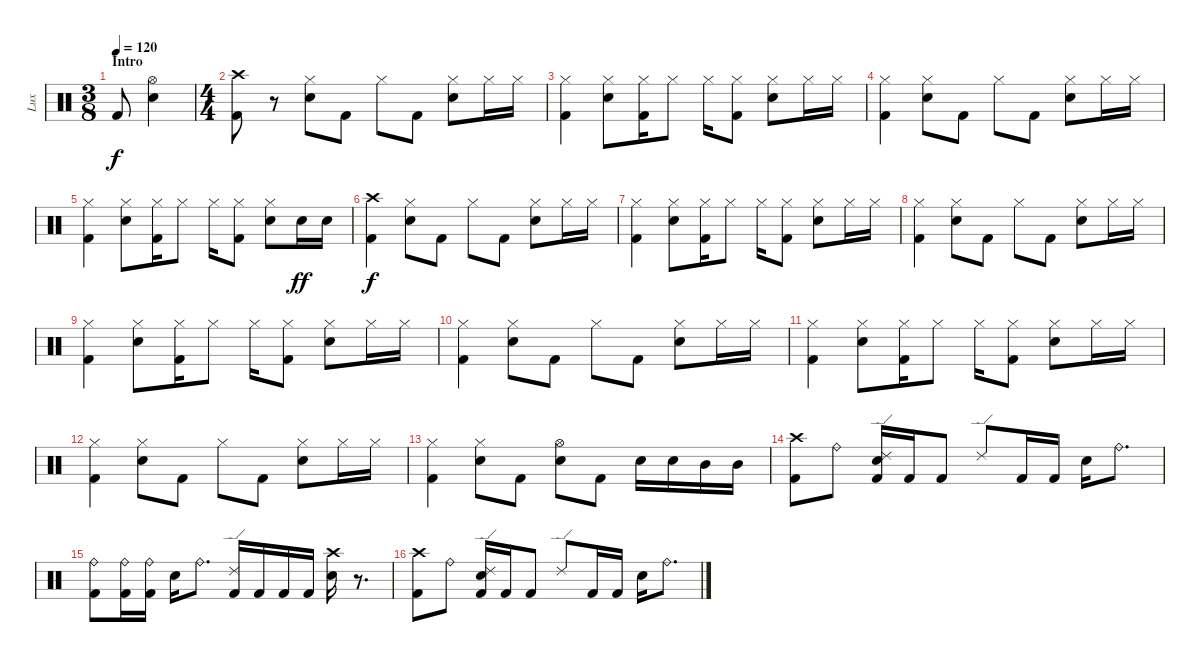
\track ("Lux" "Lux") {instrument percussion bank 32}
\staff {score}
\articulation defaults
\ts (3 8)
\section ("" "Intro")
\tempo 120
\clef neutral
\ks c "Kick (hit) 2".8{dy f}
("Hi-Hat (open)" "Snare (hit) 2").4 |
\ts (4 4)
("Crash high (hit)" "Kick (hit) 2").8 r.8 ("Hi-Hat (closed)" "Snare (hit) 2").8 "Kick (hit) 2".8 "Hi-Hat (closed)".8 "Kick (hit) 2".8 ("Hi-Hat (closed)" "Snare (hit) 2").8 "Hi-Hat (closed)".16 "Hi-Hat (closed)".16 |
("Hi-Hat (closed)" "Kick (hit) 2").4 ("Hi-Hat (closed)" "Snare (hit) 2").8 ("Hi-Hat (closed)" "Kick (hit) 2").16 "Hi-Hat (closed)".8 "Hi-Hat (closed)".16 ("Hi-Hat (closed)" "Kick (hit) 2").8 ("Hi-Hat (closed)" "Snare (hit) 2").8 "Hi-Hat (closed)".16 "Hi-Hat (closed)".16 |
("Hi-Hat (closed)" "Kick (hit) 2").4 ("Hi-Hat (closed)" "Snare (hit) 2").8 "Kick (hit) 2".8 "Hi-Hat (closed)".8 "Kick (hit) 2".8 ("Hi-Hat (closed)" "Snare (hit) 2").8 "Hi-Hat (closed)".16 "Hi-Hat (closed)".16 |
("Hi-Hat (closed)" "Kick (hit) 2").4 ("Hi-Hat (closed)" "Snare (hit) 2").8 ("Hi-Hat (closed)" "Kick (hit) 2").16 "Hi-Hat (closed)".8 "Hi-Hat (closed)".16 ("Hi-Hat (closed)" "Kick (hit) 2").8 ("Hi-Hat (closed)" "Snare (hit) 2").8 "Snare (hit) 2".16{dy ff} "Snare (hit) 2".16 |
("Crash high (hit)" "Kick (hit) 2").4{dy f} ("Hi-Hat (closed)" "Snare (hit) 2").8 "Kick (hit) 2".8 "Hi-Hat (closed)".8 "Kick (hit) 2".8 ("Hi-Hat (closed)" "Snare (hit) 2").8 "Hi-Hat (closed)".16 "Hi-Hat (closed)".16 |
("Hi-Hat (closed)" "Kick (hit) 2").4 ("Hi-Hat (closed)" "Snare (hit) 2").8 ("Hi-Hat (closed)" "Kick (hit) 2").16 "Hi-Hat (closed)".8 "Hi-Hat (closed)".16 ("Hi-Hat (closed)" "Kick (hit) 2").8 ("Hi-Hat (closed)" "Snare (hit) 2").8 "Hi-Hat (closed)".16 "Hi-Hat (closed)".16 |
("Hi-Hat (closed)" "Kick (hit) 2").4 ("Hi-Hat (closed)" "Snare (hit) 2").8 "Kick (hit) 2".8 "Hi-Hat (closed)".8 "Kick (hit) 2".8 ("Hi-Hat (closed)" "Snare (hit) 2").8 "Hi-Hat (closed)".16 "Hi-Hat (closed)".16 |
("Hi-Hat (closed)" "Kick (hit) 2").4 ("Hi-Hat (closed)" "Snare (hit) 2").8 ("Hi-Hat (closed)" "Kick (hit) 2").16 "Hi-Hat (closed)".8 "Hi-Hat (closed)".16 ("Hi-Hat (closed)" "Kick (hit) 2").8 ("Hi-Hat (closed)" "Snare (hit) 2").8 "Hi-Hat (closed)".16 "Hi-Hat (closed)".16 |
("Hi-Hat (closed)" "Kick (hit) 2").4 ("Hi-Hat (closed)" "Snare (hit) 2").8 "Kick (hit) 2".8 "Hi-Hat (closed)".8 "Kick (hit) 2".8 ("Hi-Hat (closed)" "Snare (hit) 2").8 "Hi-Hat (closed)".16 "Hi-Hat (closed)".16 |
("Hi-Hat (closed)" "Kick (hit) 2").4 ("Hi-Hat (closed)" "Snare (hit) 2").8 ("Hi-Hat (closed)" "Kick (hit) 2").16 "Hi-Hat (closed)".8 "Hi-Hat (closed)".16 ("Hi-Hat (closed)" "Kick (hit) 2").8 ("Hi-Hat (closed)" "Snare (hit) 2").8 "Hi-Hat (closed)".16 "Hi-Hat (closed)".16 |
("Hi-Hat (closed)" "Kick (hit) 2").4 ("Hi-Hat (closed)" "Snare (hit) 2").8 "Kick (hit) 2".8 "Hi-Hat (closed)".8 "Kick (hit) 2".8 ("Hi-Hat (closed)" "Snare (hit) 2").8 "Hi-Hat (closed)".16 "Hi-Hat (closed)".16 |
("Hi-Hat (closed)" "Kick (hit) 2").4 ("Hi-Hat (closed)" "Snare (hit) 2").8 "Kick (hit) 2".8 ("Hi-Hat (open)" "Snare (hit) 2").8 "Kick (hit) 2".8 "Snare (hit) 2".16 "Snare (hit) 2".16 "Mid Tom (hit)".16 "Mid Tom (hit)".16 |
("Crash high (hit)" "Kick (hit) 2").8 "Ride (bell)".8 ("Ride (edge) 2" "Snare (hit) 2" "Kick (hit) 2").16 "Kick (hit) 2".16 "Kick (hit) 2".8 "Ride (edge) 2".8 "Kick (hit) 2".16 "Kick (hit) 2".16 "Snare (hit) 2".16 "Ride (bell)".8{d} |
("Ride (bell)" "Kick (hit) 2").8 ("Ride (bell)" "Kick (hit) 2").16 ("Ride (bell)" "Kick (hit) 2").16 "Snare (hit) 2".16 "Ride (bell)".8{d} ("Ride (edge) 2" "Kick (hit) 2").16 "Kick (hit) 2".16 "Kick (hit) 2".16 "Kick (hit) 2".16 ("Crash high (hit)" "Snare (hit) 2").16 r.8{d} |
("Crash high (hit)" "Kick (hit) 2").8 "Ride (bell)".8 ("Ride (edge) 2" "Snare (hit) 2" "Kick (hit) 2").16 "Kick (hit) 2".16 "Kick (hit) 2".8 "Ride (edge) 2".8 "Kick (hit) 2".16 "Kick (hit) 2".16 "Snare (hit) 2".16 "Ride (bell)".8{d}
